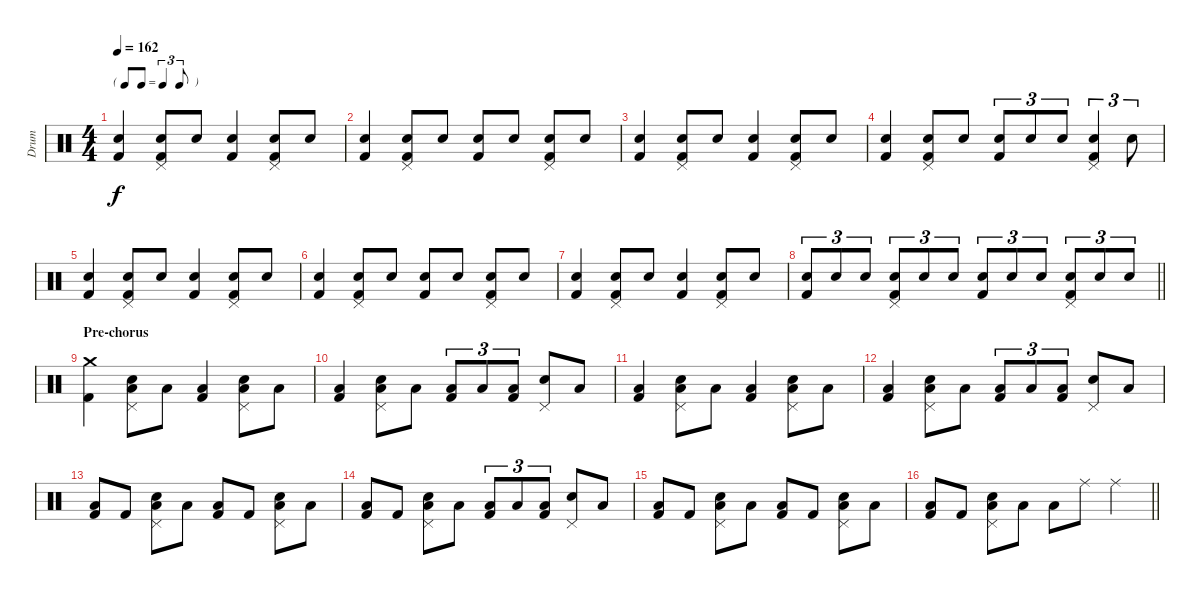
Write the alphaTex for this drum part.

\track ("Drum" "Drum") {instrument percussion}
\staff {score}
\articulation defaults
\ts (4 4)
\tf triplet8th
\tempo 162
\clef neutral
\ks c
("Snare (hit) 2" "Kick (hit) 2").4{dy f} ("Pedal Hi-Hat (hit)" "Snare (hit) 2" "Kick (hit) 2").8 "Snare (hit) 2".8 ("Snare (hit) 2" "Kick (hit) 2").4 ("Pedal Hi-Hat (hit)" "Snare (hit) 2" "Kick (hit) 2").8 "Snare (hit) 2".8 |
("Snare (hit) 2" "Kick (hit) 2").4 ("Pedal Hi-Hat (hit)" "Snare (hit) 2" "Kick (hit) 2").8 "Snare (hit) 2".8 ("Snare (hit) 2" "Kick (hit) 2").8 "Snare (hit) 2".8 ("Pedal Hi-Hat (hit)" "Snare (hit) 2" "Kick (hit) 2").8 "Snare (hit) 2".8 |
("Snare (hit) 2" "Kick (hit) 2").4 ("Pedal Hi-Hat (hit)" "Snare (hit) 2" "Kick (hit) 2").8 "Snare (hit) 2".8 ("Snare (hit) 2" "Kick (hit) 2").4 ("Pedal Hi-Hat (hit)" "Snare (hit) 2" "Kick (hit) 2").8 "Snare (hit) 2".8 |
("Snare (hit) 2" "Kick (hit) 2").4 ("Pedal Hi-Hat (hit)" "Snare (hit) 2" "Kick (hit) 2").8 "Snare (hit) 2".8 ("Snare (hit) 2" "Kick (hit) 2").8{tu (3 2)} "Snare (hit) 2".8{tu (3 2)} "Snare (hit) 2".8{tu (3 2)} ("Pedal Hi-Hat (hit)" "Snare (hit) 2" "Kick (hit) 2").4{tu (3 2)} "Snare (hit) 2".8{tu (3 2)} |
("Snare (hit) 2" "Kick (hit) 2").4 ("Pedal Hi-Hat (hit)" "Snare (hit) 2" "Kick (hit) 2").8 "Snare (hit) 2".8 ("Snare (hit) 2" "Kick (hit) 2").4 ("Pedal Hi-Hat (hit)" "Snare (hit) 2" "Kick (hit) 2").8 "Snare (hit) 2".8 |
("Snare (hit) 2" "Kick (hit) 2").4 ("Pedal Hi-Hat (hit)" "Snare (hit) 2" "Kick (hit) 2").8 "Snare (hit) 2".8 ("Snare (hit) 2" "Kick (hit) 2").8 "Snare (hit) 2".8 ("Pedal Hi-Hat (hit)" "Snare (hit) 2" "Kick (hit) 2").8 "Snare (hit) 2".8 |
("Snare (hit) 2" "Kick (hit) 2").4 ("Pedal Hi-Hat (hit)" "Snare (hit) 2" "Kick (hit) 2").8 "Snare (hit) 2".8 ("Snare (hit) 2" "Kick (hit) 2").4 ("Pedal Hi-Hat (hit)" "Snare (hit) 2" "Kick (hit) 2").8 "Snare (hit) 2".8 |
\barLineRight lightlight
("Snare (hit) 2" "Kick (hit) 2").8{tu (3 2)} "Snare (hit) 2".8{tu (3 2)} "Snare (hit) 2".8{tu (3 2)} ("Pedal Hi-Hat (hit)" "Snare (hit) 2" "Kick (hit) 2").8{tu (3 2)} "Snare (hit) 2".8{tu (3 2)} "Snare (hit) 2".8{tu (3 2)} ("Snare (hit) 2" "Kick (hit) 2").8{tu (3 2)} "Snare (hit) 2".8{tu (3 2)} "Snare (hit) 2".8{tu (3 2)} ("Pedal Hi-Hat (hit)" "Snare (hit) 2" "Kick (hit) 2").8{tu (3 2)} "Snare (hit) 2".8{tu (3 2)} "Snare (hit) 2".8{tu (3 2)} |
\section ("" "Pre-chorus")
("Crash medium (hit)" "Kick (hit) 2").4 ("Pedal Hi-Hat (hit)" "Snare (hit) 2" "Low Floor Tom (hit)").8 "Low Floor Tom (hit)".8 ("Low Floor Tom (hit)" "Kick (hit) 2").4 ("Pedal Hi-Hat (hit)" "Snare (hit) 2" "Low Floor Tom (hit)").8 "Low Floor Tom (hit)".8 |
("Low Floor Tom (hit)" "Kick (hit) 2").4 ("Pedal Hi-Hat (hit)" "Snare (hit) 2" "Low Floor Tom (hit)").8 "Low Floor Tom (hit)".8 ("Low Floor Tom (hit)" "Kick (hit) 2").8{tu (3 2)} "Low Floor Tom (hit)".8{tu (3 2)} ("Low Floor Tom (hit)" "Kick (hit) 2").8{tu (3 2)} ("Pedal Hi-Hat (hit)" "Snare (hit) 2").8 "Low Floor Tom (hit)".8 |
("Low Floor Tom (hit)" "Kick (hit) 2").4 ("Pedal Hi-Hat (hit)" "Snare (hit) 2" "Low Floor Tom (hit)").8 "Low Floor Tom (hit)".8 ("Low Floor Tom (hit)" "Kick (hit) 2").4 ("Pedal Hi-Hat (hit)" "Snare (hit) 2" "Low Floor Tom (hit)").8 "Low Floor Tom (hit)".8 |
("Low Floor Tom (hit)" "Kick (hit) 2").4 ("Pedal Hi-Hat (hit)" "Snare (hit) 2" "Low Floor Tom (hit)").8 "Low Floor Tom (hit)".8 ("Low Floor Tom (hit)" "Kick (hit) 2").8{tu (3 2)} "Low Floor Tom (hit)".8{tu (3 2)} ("Low Floor Tom (hit)" "Kick (hit) 2").8{tu (3 2)} ("Pedal Hi-Hat (hit)" "Snare (hit) 2").8 "Low Floor Tom (hit)".8 |
("Low Floor Tom (hit)" "Kick (hit) 2").8 "Kick (hit) 2".8 ("Pedal Hi-Hat (hit)" "Snare (hit) 2" "Low Floor Tom (hit)").8 "Low Floor Tom (hit)".8 ("Low Floor Tom (hit)" "Kick (hit) 2").8 "Kick (hit) 2".8 ("Pedal Hi-Hat (hit)" "Snare (hit) 2" "Low Floor Tom (hit)").8 "Low Floor Tom (hit)".8 |
("Low Floor Tom (hit)" "Kick (hit) 2").8 "Kick (hit) 2".8 ("Pedal Hi-Hat (hit)" "Snare (hit) 2" "Low Floor Tom (hit)").8 "Low Floor Tom (hit)".8 ("Low Floor Tom (hit)" "Kick (hit) 2").8{tu (3 2)} "Low Floor Tom (hit)".8{tu (3 2)} ("Low Floor Tom (hit)" "Kick (hit) 2").8{tu (3 2)} ("Pedal Hi-Hat (hit)" "Snare (hit) 2").8 "Low Floor Tom (hit)".8 |
("Low Floor Tom (hit)" "Kick (hit) 2").8 "Kick (hit) 2".8 ("Pedal Hi-Hat (hit)" "Snare (hit) 2" "Low Floor Tom (hit)").8 "Low Floor Tom (hit)".8 ("Low Floor Tom (hit)" "Kick (hit) 2").8 "Kick (hit) 2".8 ("Pedal Hi-Hat (hit)" "Snare (hit) 2" "Low Floor Tom (hit)").8 "Low Floor Tom (hit)".8 |
\barLineRight lightlight
("Low Floor Tom (hit)" "Kick (hit) 2").8 "Kick (hit) 2".8 ("Pedal Hi-Hat (hit)" "Snare (hit) 2" "Low Floor Tom (hit)").8 "Low Tom (hit)".8 "Low Tom (hit)".8 "Ride (middle)".8 "Ride (middle)".4
